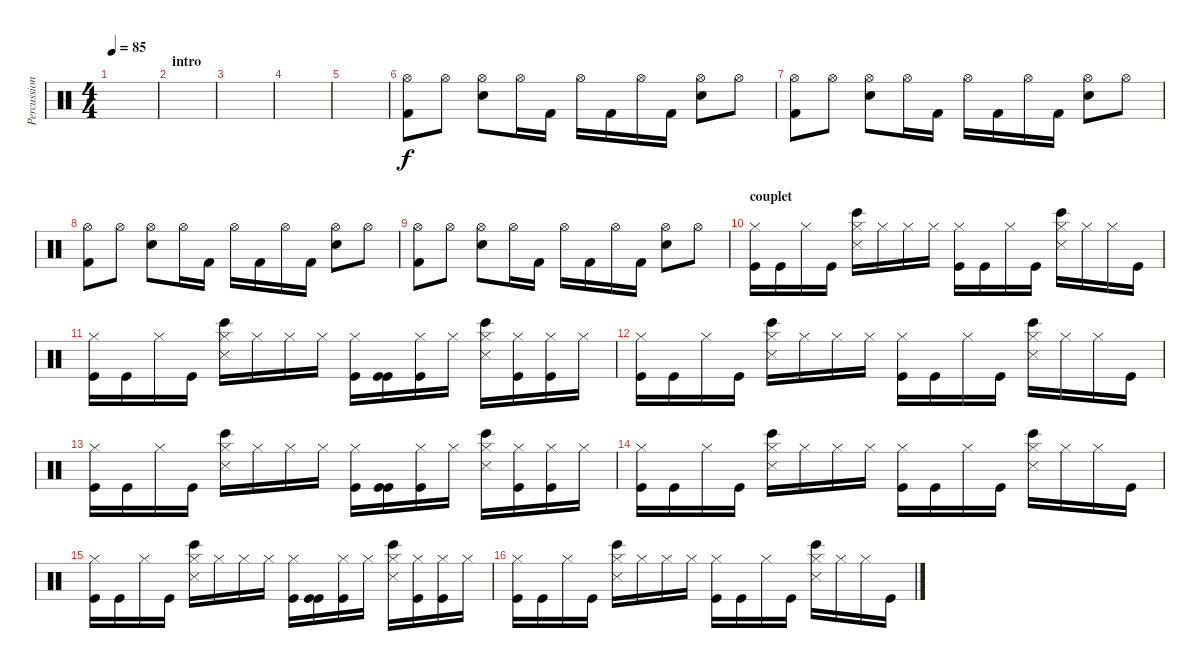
\track ("Percussions" "Percussion") {instrument percussion}
\staff {score}
\articulation defaults
\ts (4 4)
\tempo 85
\clef neutral
\ks c
|
\section ("" "intro")
|
|
|
|
("Kick (hit) 2" "Hi-Hat (open)").8 "Hi-Hat (open)".8 ("Hi-Hat (open)" "Electric Snare (hit)").8 "Hi-Hat (open)".16 "Kick (hit) 2".16 "Hi-Hat (open)".16 "Kick (hit) 2".16 "Hi-Hat (open)".16 "Kick (hit) 2".16 ("Hi-Hat (open)" "Electric Snare (hit)").8 "Hi-Hat (open)".8 |
("Kick (hit) 2" "Hi-Hat (open)").8 "Hi-Hat (open)".8 ("Hi-Hat (open)" "Electric Snare (hit)").8 "Hi-Hat (open)".16 "Kick (hit) 2".16 "Hi-Hat (open)".16 "Kick (hit) 2".16 "Hi-Hat (open)".16 "Kick (hit) 2".16 ("Hi-Hat (open)" "Electric Snare (hit)").8 "Hi-Hat (open)".8 |
("Kick (hit) 2" "Hi-Hat (open)").8 "Hi-Hat (open)".8 ("Hi-Hat (open)" "Electric Snare (hit)").8 "Hi-Hat (open)".16 "Kick (hit) 2".16 "Hi-Hat (open)".16 "Kick (hit) 2".16 "Hi-Hat (open)".16 "Kick (hit) 2".16 ("Hi-Hat (open)" "Electric Snare (hit)").8 "Hi-Hat (open)".8 |
("Kick (hit) 2" "Hi-Hat (open)").8 "Hi-Hat (open)".8 ("Hi-Hat (open)" "Electric Snare (hit)").8 "Hi-Hat (open)".16 "Kick (hit) 2".16 "Hi-Hat (open)".16 "Kick (hit) 2".16 "Hi-Hat (open)".16 "Kick (hit) 2".16 ("Hi-Hat (open)" "Electric Snare (hit)").8 "Hi-Hat (open)".8 |
\section ("" "couplet")
("Kick (hit)" "Hi-Hat (closed)").16 "Kick (hit)".16 "Hi-Hat (closed)".16 "Kick (hit)".16 ("Snare (side stick) 3" "Bongo High (hit)" "Hi-Hat (closed)").16 "Hi-Hat (closed)".16 "Hi-Hat (closed)".16 "Hi-Hat (closed)".16 ("Kick (hit)" "Hi-Hat (closed)").16 "Kick (hit)".16 "Hi-Hat (closed)".16 "Kick (hit)".16 ("Bongo High (hit)" "Snare (side stick) 3" "Hi-Hat (closed)").16 "Hi-Hat (closed)".16 "Hi-Hat (closed)".16 "Kick (hit)".16 |
("Kick (hit)" "Hi-Hat (closed)").16 "Kick (hit)".16 "Hi-Hat (closed)".16 "Kick (hit)".16 ("Snare (side stick) 3" "Bongo High (hit)" "Hi-Hat (closed)").16 "Hi-Hat (closed)".16 "Hi-Hat (closed)".16 "Hi-Hat (closed)".16 ("Kick (hit)" "Hi-Hat (closed)").16 ("Kick (hit)" "Kick (hit)").16 ("Hi-Hat (closed)" "Kick (hit)").16 "Hi-Hat (closed)".16 ("Bongo High (hit)" "Snare (side stick) 3" "Hi-Hat (closed)").16 ("Hi-Hat (closed)" "Kick (hit)").16 ("Hi-Hat (closed)" "Kick (hit)").16 "Hi-Hat (closed)".16 |
("Kick (hit)" "Hi-Hat (closed)").16 "Kick (hit)".16 "Hi-Hat (closed)".16 "Kick (hit)".16 ("Snare (side stick) 3" "Bongo High (hit)" "Hi-Hat (closed)").16 "Hi-Hat (closed)".16 "Hi-Hat (closed)".16 "Hi-Hat (closed)".16 ("Kick (hit)" "Hi-Hat (closed)").16 "Kick (hit)".16 "Hi-Hat (closed)".16 "Kick (hit)".16 ("Bongo High (hit)" "Snare (side stick) 3" "Hi-Hat (closed)").16 "Hi-Hat (closed)".16 "Hi-Hat (closed)".16 "Kick (hit)".16 |
("Kick (hit)" "Hi-Hat (closed)").16 "Kick (hit)".16 "Hi-Hat (closed)".16 "Kick (hit)".16 ("Snare (side stick) 3" "Bongo High (hit)" "Hi-Hat (closed)").16 "Hi-Hat (closed)".16 "Hi-Hat (closed)".16 "Hi-Hat (closed)".16 ("Kick (hit)" "Hi-Hat (closed)").16 ("Kick (hit)" "Kick (hit)").16 ("Hi-Hat (closed)" "Kick (hit)").16 "Hi-Hat (closed)".16 ("Bongo High (hit)" "Snare (side stick) 3" "Hi-Hat (closed)").16 ("Hi-Hat (closed)" "Kick (hit)").16 ("Hi-Hat (closed)" "Kick (hit)").16 "Hi-Hat (closed)".16 |
("Kick (hit)" "Hi-Hat (closed)").16 "Kick (hit)".16 "Hi-Hat (closed)".16 "Kick (hit)".16 ("Snare (side stick) 3" "Bongo High (hit)" "Hi-Hat (closed)").16 "Hi-Hat (closed)".16 "Hi-Hat (closed)".16 "Hi-Hat (closed)".16 ("Kick (hit)" "Hi-Hat (closed)").16 "Kick (hit)".16 "Hi-Hat (closed)".16 "Kick (hit)".16 ("Bongo High (hit)" "Snare (side stick) 3" "Hi-Hat (closed)").16 "Hi-Hat (closed)".16 "Hi-Hat (closed)".16 "Kick (hit)".16 |
("Kick (hit)" "Hi-Hat (closed)").16 "Kick (hit)".16 "Hi-Hat (closed)".16 "Kick (hit)".16 ("Snare (side stick) 3" "Bongo High (hit)" "Hi-Hat (closed)").16 "Hi-Hat (closed)".16 "Hi-Hat (closed)".16 "Hi-Hat (closed)".16 ("Kick (hit)" "Hi-Hat (closed)").16 ("Kick (hit)" "Kick (hit)").16 ("Hi-Hat (closed)" "Kick (hit)").16 "Hi-Hat (closed)".16 ("Bongo High (hit)" "Snare (side stick) 3" "Hi-Hat (closed)").16 ("Hi-Hat (closed)" "Kick (hit)").16 ("Hi-Hat (closed)" "Kick (hit)").16 "Hi-Hat (closed)".16 |
("Kick (hit)" "Hi-Hat (closed)").16 "Kick (hit)".16 "Hi-Hat (closed)".16 "Kick (hit)".16 ("Snare (side stick) 3" "Bongo High (hit)" "Hi-Hat (closed)").16 "Hi-Hat (closed)".16 "Hi-Hat (closed)".16 "Hi-Hat (closed)".16 ("Kick (hit)" "Hi-Hat (closed)").16 "Kick (hit)".16 "Hi-Hat (closed)".16 "Kick (hit)".16 ("Bongo High (hit)" "Snare (side stick) 3" "Hi-Hat (closed)").16 "Hi-Hat (closed)".16 "Hi-Hat (closed)".16 "Kick (hit)".16
